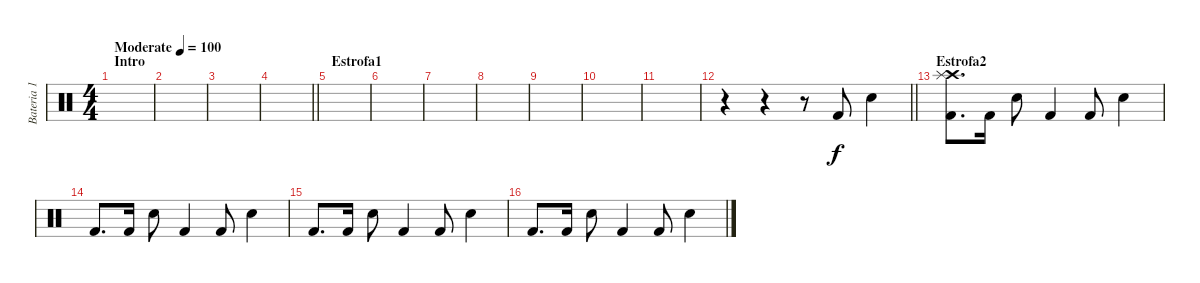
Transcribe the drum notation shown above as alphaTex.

\track ("Bateria 1" "Bateria 1") {instrument percussion}
\staff {score}
\articulation defaults
\ts (4 4)
\section ("" "Intro")
\tempo (100 "Moderate")
\clef neutral
\ks c
|
|
|
\barLineRight lightlight
|
\section ("" "Estrofa1")
|
|
|
|
|
|
|
\barLineRight lightlight
r.4 r.4 r.8 "Kick (hit) 2".8 "Electric Snare (hit)".4 |
\section ("" "Estrofa2")
("Crash high (hit)" "Kick (hit) 2" "Splash (hit)").8{d} "Kick (hit) 2".16 "Electric Snare (hit)".8 "Kick (hit) 2".4 "Kick (hit) 2".8 "Electric Snare (hit)".4 |
"Kick (hit) 2".8{d} "Kick (hit) 2".16 "Electric Snare (hit)".8 "Kick (hit) 2".4 "Kick (hit) 2".8 "Electric Snare (hit)".4 |
"Kick (hit) 2".8{d} "Kick (hit) 2".16 "Electric Snare (hit)".8 "Kick (hit) 2".4 "Kick (hit) 2".8 "Electric Snare (hit)".4 |
"Kick (hit) 2".8{d} "Kick (hit) 2".16 "Electric Snare (hit)".8 "Kick (hit) 2".4 "Kick (hit) 2".8 "Electric Snare (hit)".4
